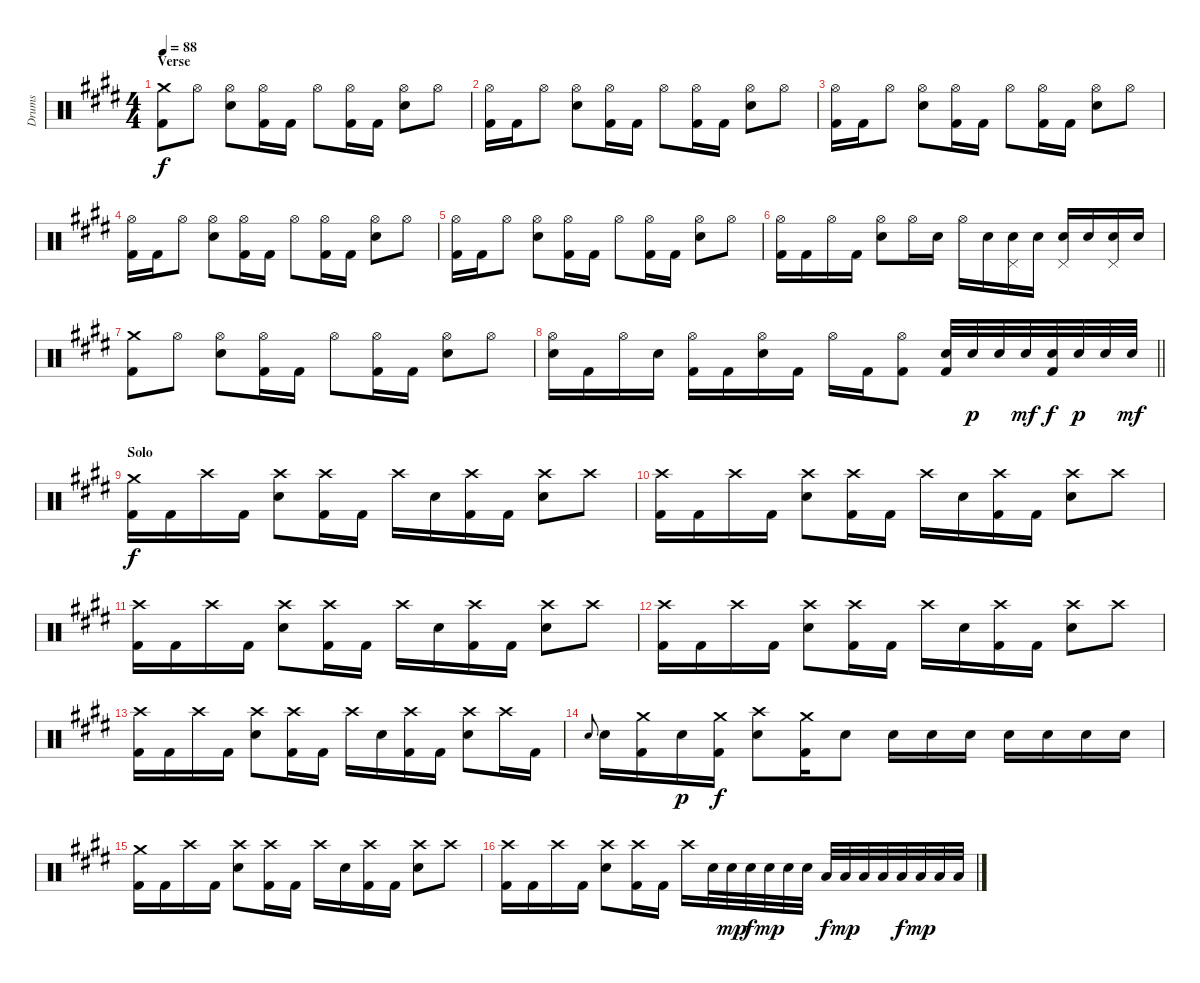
\track ("Drums" "Drums") {instrument percussion}
\staff {score}
\articulation defaults
\ts (4 4)
\section ("" "Verse")
\tempo 88
\clef neutral
\ks e
("Kick (hit) 2" "Crash medium (hit)").8{dy f} "Hi-Hat (open)".8 ("Electric Snare (hit)" "Hi-Hat (open)").8 ("Kick (hit) 2" "Hi-Hat (open)").16 "Kick (hit) 2".16 "Hi-Hat (open)".8 ("Kick (hit) 2" "Hi-Hat (open)").16 "Kick (hit) 2".16 ("Electric Snare (hit)" "Hi-Hat (open)").8 "Hi-Hat (open)".8 |
("Hi-Hat (open)" "Kick (hit) 2").16 "Kick (hit) 2".16 "Hi-Hat (open)".8 ("Hi-Hat (open)" "Electric Snare (hit)").8 ("Kick (hit) 2" "Hi-Hat (open)").16 "Kick (hit) 2".16 "Hi-Hat (open)".8 ("Kick (hit) 2" "Hi-Hat (open)").16 "Kick (hit) 2".16 ("Electric Snare (hit)" "Hi-Hat (open)").8 "Hi-Hat (open)".8 |
("Hi-Hat (open)" "Kick (hit) 2").16 "Kick (hit) 2".16 "Hi-Hat (open)".8 ("Hi-Hat (open)" "Electric Snare (hit)").8 ("Kick (hit) 2" "Hi-Hat (open)").16 "Kick (hit) 2".16 "Hi-Hat (open)".8 ("Kick (hit) 2" "Hi-Hat (open)").16 "Kick (hit) 2".16 ("Electric Snare (hit)" "Hi-Hat (open)").8 "Hi-Hat (open)".8 |
("Hi-Hat (open)" "Kick (hit) 2").16 "Kick (hit) 2".16 "Hi-Hat (open)".8 ("Hi-Hat (open)" "Electric Snare (hit)").8 ("Kick (hit) 2" "Hi-Hat (open)").16 "Kick (hit) 2".16 "Hi-Hat (open)".8 ("Kick (hit) 2" "Hi-Hat (open)").16 "Kick (hit) 2".16 ("Electric Snare (hit)" "Hi-Hat (open)").8 "Hi-Hat (open)".8 |
("Hi-Hat (open)" "Kick (hit) 2").16 "Kick (hit) 2".16 "Hi-Hat (open)".8 ("Hi-Hat (open)" "Electric Snare (hit)").8 ("Kick (hit) 2" "Hi-Hat (open)").16 "Kick (hit) 2".16 "Hi-Hat (open)".8 ("Kick (hit) 2" "Hi-Hat (open)").16 "Kick (hit) 2".16 ("Electric Snare (hit)" "Hi-Hat (open)").8 "Hi-Hat (open)".8 |
("Hi-Hat (open)" "Kick (hit) 2").16 "Kick (hit) 2".16 "Hi-Hat (open)".16 "Kick (hit) 2".16 ("Electric Snare (hit)" "Hi-Hat (open)").8 "Hi-Hat (open)".16 "Electric Snare (hit)".16 "Hi-Hat (open)".16 "Electric Snare (hit)".16 ("Electric Snare (hit)" "Pedal Hi-Hat (hit)").16 "Electric Snare (hit)".16 ("Electric Snare (hit)" "Pedal Hi-Hat (hit)").16 "Electric Snare (hit)".16 ("Electric Snare (hit)" "Pedal Hi-Hat (hit)").16 "Electric Snare (hit)".16 |
("Kick (hit) 2" "Crash medium (hit)").8 "Hi-Hat (open)".8 ("Electric Snare (hit)" "Hi-Hat (open)").8 ("Kick (hit) 2" "Hi-Hat (open)").16 "Kick (hit) 2".16 "Hi-Hat (open)".8 ("Kick (hit) 2" "Hi-Hat (open)").16 "Kick (hit) 2".16 ("Electric Snare (hit)" "Hi-Hat (open)").8 "Hi-Hat (open)".8 |
\barLineRight lightlight
("Hi-Hat (open)" "Electric Snare (hit)").16 "Kick (hit) 2".16 "Hi-Hat (open)".16 "Electric Snare (hit)".16 ("Hi-Hat (open)" "Kick (hit) 2").16 "Kick (hit) 2".16 ("Hi-Hat (open)" "Electric Snare (hit)").16 "Kick (hit) 2".16 "Hi-Hat (open)".16 "Kick (hit) 2".16 ("Hi-Hat (open)" "Kick (hit) 2").8 ("Electric Snare (hit)" "Kick (hit) 2").32 "Electric Snare (hit)".32{dy p} "Electric Snare (hit)".32 "Electric Snare (hit)".32{dy mf} ("Electric Snare (hit)" "Kick (hit) 2").32{dy f} "Electric Snare (hit)".32{dy p} "Electric Snare (hit)".32 "Electric Snare (hit)".32{dy mf} |
\section ("" "Solo")
("Crash medium (hit)" "Kick (hit) 2").16{dy f} "Kick (hit) 2".16 "Crash high (hit)".16 "Kick (hit) 2".16 ("Crash high (hit)" "Electric Snare (hit)").8 ("Crash high (hit)" "Kick (hit) 2").16 "Kick (hit) 2".16 "Crash high (hit)".16 "Electric Snare (hit)".16 ("Crash high (hit)" "Kick (hit) 2").16 "Kick (hit) 2".16 ("Electric Snare (hit)" "Crash high (hit)").8 "Crash high (hit)".8 |
("Crash high (hit)" "Kick (hit) 2").16 "Kick (hit) 2".16 "Crash high (hit)".16 "Kick (hit) 2".16 ("Crash high (hit)" "Electric Snare (hit)").8 ("Crash high (hit)" "Kick (hit) 2").16 "Kick (hit) 2".16 "Crash high (hit)".16 "Electric Snare (hit)".16 ("Crash high (hit)" "Kick (hit) 2").16 "Kick (hit) 2".16 ("Electric Snare (hit)" "Crash high (hit)").8 "Crash high (hit)".8 |
("Crash high (hit)" "Kick (hit) 2").16 "Kick (hit) 2".16 "Crash high (hit)".16 "Kick (hit) 2".16 ("Crash high (hit)" "Electric Snare (hit)").8 ("Crash high (hit)" "Kick (hit) 2").16 "Kick (hit) 2".16 "Crash high (hit)".16 "Electric Snare (hit)".16 ("Crash high (hit)" "Kick (hit) 2").16 "Kick (hit) 2".16 ("Electric Snare (hit)" "Crash high (hit)").8 "Crash high (hit)".8 |
("Crash high (hit)" "Kick (hit) 2").16 "Kick (hit) 2".16 "Crash high (hit)".16 "Kick (hit) 2".16 ("Crash high (hit)" "Electric Snare (hit)").8 ("Crash high (hit)" "Kick (hit) 2").16 "Kick (hit) 2".16 "Crash high (hit)".16 "Electric Snare (hit)".16 ("Crash high (hit)" "Kick (hit) 2").16 "Kick (hit) 2".16 ("Electric Snare (hit)" "Crash high (hit)").8 "Crash high (hit)".8 |
("Crash high (hit)" "Kick (hit) 2").16 "Kick (hit) 2".16 "Crash high (hit)".16 "Kick (hit) 2".16 ("Crash high (hit)" "Electric Snare (hit)").8 ("Crash high (hit)" "Kick (hit) 2").16 "Kick (hit) 2".16 "Crash high (hit)".16 "Electric Snare (hit)".16 ("Crash high (hit)" "Kick (hit) 2").16 "Kick (hit) 2".16 ("Electric Snare (hit)" "Crash high (hit)").8 "Crash high (hit)".16 "Kick (hit) 2".16 |
"Electric Snare (hit)".8{gr onbeat} "Electric Snare (hit)".16 ("Kick (hit) 2" "Crash medium (hit)").16 "Electric Snare (hit)".16{dy p} ("Kick (hit) 2" "Crash medium (hit)").16{dy f} ("Electric Snare (hit)" "Crash high (hit)").8 ("Kick (hit) 2" "Crash medium (hit)").16 "Electric Snare (hit)".8 "Electric Snare (hit)".16 "Electric Snare (hit)".16 "Electric Snare (hit)".16 "Electric Snare (hit)".16 "Electric Snare (hit)".16 "Electric Snare (hit)".16 "Electric Snare (hit)".16 |
("Crash medium (hit)" "Kick (hit) 2").16 "Kick (hit) 2".16 "Crash high (hit)".16 "Kick (hit) 2".16 ("Crash high (hit)" "Electric Snare (hit)").8 ("Crash high (hit)" "Kick (hit) 2").16 "Kick (hit) 2".16 "Crash high (hit)".16 "Electric Snare (hit)".16 ("Crash high (hit)" "Kick (hit) 2").16 "Kick (hit) 2".16 ("Electric Snare (hit)" "Crash high (hit)").8 "Crash high (hit)".8 |
("Crash high (hit)" "Kick (hit) 2").16 "Kick (hit) 2".16 "Crash high (hit)".16 "Kick (hit) 2".16 ("Crash high (hit)" "Electric Snare (hit)").8 ("Crash high (hit)" "Kick (hit) 2").16 "Kick (hit) 2".16 "Crash high (hit)".16 "Electric Snare (hit)".32 "Electric Snare (hit)".32{dy mp} "Electric Snare (hit)".32{dy f} "Electric Snare (hit)".32{dy mp} "Electric Snare (hit)".32 "Electric Snare (hit)".32 "Low Tom (hit)".32{dy f} "Low Tom (hit)".32{dy mp} "Low Tom (hit)".32 "Low Tom (hit)".32 "Low Floor Tom (hit)".32{dy f} "Low Floor Tom (hit)".32{dy mp} "Low Floor Tom (hit)".32 "Low Floor Tom (hit)".32
